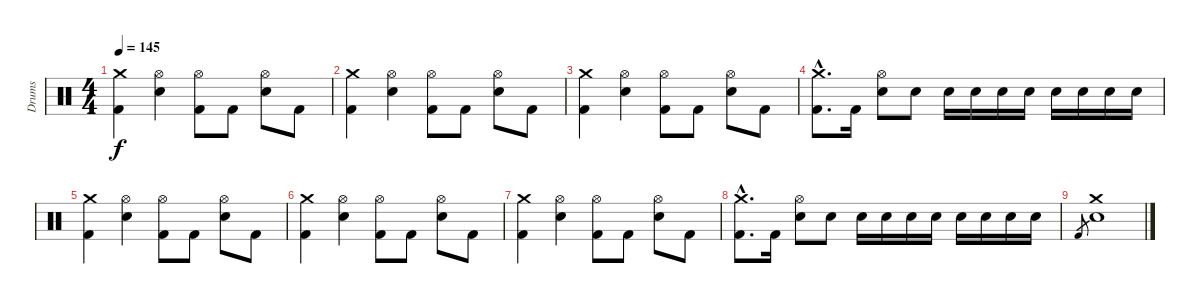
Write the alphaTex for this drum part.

\track ("Drums" "Drums") {instrument percussion}
\staff {score}
\articulation defaults
\ts (4 4)
\tempo 145
\clef neutral
\ks c
("Crash medium (hit)" "Kick (hit) 2").4{dy f} ("Hi-Hat (open)" "Electric Snare (hit)").4 ("Hi-Hat (open)" "Kick (hit) 2").8 "Kick (hit) 2".8 ("Hi-Hat (open)" "Electric Snare (hit)").8 "Kick (hit) 2".8 |
("Crash medium (hit)" "Kick (hit) 2").4 ("Hi-Hat (open)" "Electric Snare (hit)").4 ("Hi-Hat (open)" "Kick (hit) 2").8 "Kick (hit) 2".8 ("Hi-Hat (open)" "Electric Snare (hit)").8 "Kick (hit) 2".8 |
("Crash medium (hit)" "Kick (hit) 2").4 ("Hi-Hat (open)" "Electric Snare (hit)").4 ("Hi-Hat (open)" "Kick (hit) 2").8 "Kick (hit) 2".8 ("Hi-Hat (open)" "Electric Snare (hit)").8 "Kick (hit) 2".8 |
("Crash medium (hit)"{hac} "Kick (hit) 2"{hac}).8{d} "Kick (hit) 2".16 ("Hi-Hat (open)" "Electric Snare (hit)").8 "Electric Snare (hit)".8 "Electric Snare (hit)".16 "Electric Snare (hit)".16 "Electric Snare (hit)".16 "Electric Snare (hit)".16 "Electric Snare (hit)".16 "Electric Snare (hit)".16 "Electric Snare (hit)".16 "Electric Snare (hit)".16 |
("Crash medium (hit)" "Kick (hit) 2").4 ("Hi-Hat (open)" "Electric Snare (hit)").4 ("Hi-Hat (open)" "Kick (hit) 2").8 "Kick (hit) 2".8 ("Hi-Hat (open)" "Electric Snare (hit)").8 "Kick (hit) 2".8 |
("Crash medium (hit)" "Kick (hit) 2").4 ("Hi-Hat (open)" "Electric Snare (hit)").4 ("Hi-Hat (open)" "Kick (hit) 2").8 "Kick (hit) 2".8 ("Hi-Hat (open)" "Electric Snare (hit)").8 "Kick (hit) 2".8 |
("Crash medium (hit)" "Kick (hit) 2").4 ("Hi-Hat (open)" "Electric Snare (hit)").4 ("Hi-Hat (open)" "Kick (hit) 2").8 "Kick (hit) 2".8 ("Hi-Hat (open)" "Electric Snare (hit)").8 "Kick (hit) 2".8 |
("Crash medium (hit)"{hac} "Kick (hit) 2"{hac}).8{d} "Kick (hit) 2".16 ("Hi-Hat (open)" "Electric Snare (hit)").8 "Electric Snare (hit)".8 "Electric Snare (hit)".16 "Electric Snare (hit)".16 "Electric Snare (hit)".16 "Electric Snare (hit)".16 "Electric Snare (hit)".16 "Electric Snare (hit)".16 "Electric Snare (hit)".16 "Electric Snare (hit)".16 |
"Kick (hit) 2".8{gr} ("Crash medium (hit)" "Electric Snare (hit)").1
